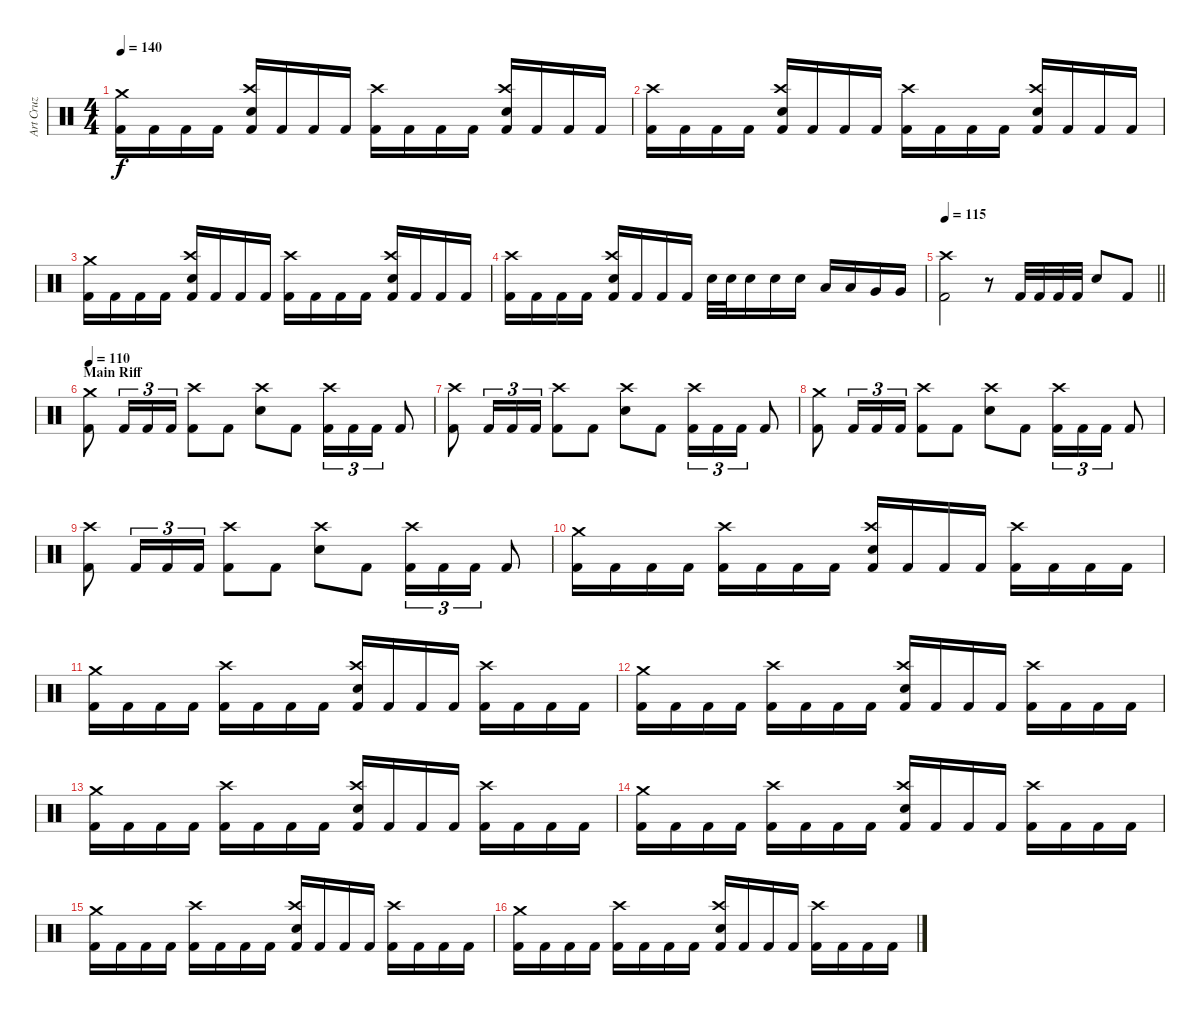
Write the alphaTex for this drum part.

\track ("Art Cruz" "Art Cruz") {instrument percussion}
\staff {score}
\articulation defaults
\ts (4 4)
\tempo 140
\clef neutral
\ks c
("Crash medium (hit)" "Kick (hit) 2").16{dy f} "Kick (hit) 2".16 "Kick (hit) 2".16 "Kick (hit) 2".16 ("Crash high (hit)" "Snare (hit) 2" "Kick (hit) 2").16 "Kick (hit) 2".16 "Kick (hit) 2".16 "Kick (hit) 2".16 ("Crash high (hit)" "Kick (hit) 2").16 "Kick (hit) 2".16 "Kick (hit) 2".16 "Kick (hit) 2".16 ("Crash high (hit)" "Snare (hit) 2" "Kick (hit) 2").16 "Kick (hit) 2".16 "Kick (hit) 2".16 "Kick (hit) 2".16 |
("Crash high (hit)" "Kick (hit) 2").16 "Kick (hit) 2".16 "Kick (hit) 2".16 "Kick (hit) 2".16 ("Crash high (hit)" "Snare (hit) 2" "Kick (hit) 2").16 "Kick (hit) 2".16 "Kick (hit) 2".16 "Kick (hit) 2".16 ("Crash high (hit)" "Kick (hit) 2").16 "Kick (hit) 2".16 "Kick (hit) 2".16 "Kick (hit) 2".16 ("Crash high (hit)" "Snare (hit) 2" "Kick (hit) 2").16 "Kick (hit) 2".16 "Kick (hit) 2".16 "Kick (hit) 2".16 |
("Crash medium (hit)" "Kick (hit) 2").16 "Kick (hit) 2".16 "Kick (hit) 2".16 "Kick (hit) 2".16 ("Crash high (hit)" "Snare (hit) 2" "Kick (hit) 2").16 "Kick (hit) 2".16 "Kick (hit) 2".16 "Kick (hit) 2".16 ("Crash high (hit)" "Kick (hit) 2").16 "Kick (hit) 2".16 "Kick (hit) 2".16 "Kick (hit) 2".16 ("Crash high (hit)" "Snare (hit) 2" "Kick (hit) 2").16 "Kick (hit) 2".16 "Kick (hit) 2".16 "Kick (hit) 2".16 |
("Crash high (hit)" "Kick (hit) 2").16 "Kick (hit) 2".16 "Kick (hit) 2".16 "Kick (hit) 2".16 ("Crash high (hit)" "Snare (hit) 2" "Kick (hit) 2").16 "Kick (hit) 2".16 "Kick (hit) 2".16 "Kick (hit) 2".16 "Snare (hit) 2".32 "Snare (hit) 2".32 "Snare (hit) 2".16 "Snare (hit) 2".16 "Snare (hit) 2".16 "Low Tom (hit)".16 "Low Tom (hit)".16 "Very Low Tom (hit)".16 "Very Low Tom (hit)".16 |
\tempo 115
\barLineRight lightlight
("Crash high (hit)" "Kick (hit) 2").2 r.8 "Kick (hit) 2".32 "Kick (hit) 2".32 "Kick (hit) 2".32 "Kick (hit) 2".32 "Snare (hit) 2".8 "Kick (hit) 2".8 |
\section ("" "Main Riff")
\tempo 110
("Crash medium (hit)" "Kick (hit) 2").8 "Kick (hit) 2".16{tu (3 2)} "Kick (hit) 2".16{tu (3 2)} "Kick (hit) 2".16{tu (3 2)} ("Crash high (hit)" "Kick (hit) 2").8 "Kick (hit) 2".8 ("Crash high (hit)" "Snare (hit) 2").8 "Kick (hit) 2".8 ("Crash high (hit)" "Kick (hit) 2").16{tu (3 2)} "Kick (hit) 2".16{tu (3 2)} "Kick (hit) 2".16{tu (3 2)} "Kick (hit) 2".8 |
("Crash high (hit)" "Kick (hit) 2").8 "Kick (hit) 2".16{tu (3 2)} "Kick (hit) 2".16{tu (3 2)} "Kick (hit) 2".16{tu (3 2)} ("Crash high (hit)" "Kick (hit) 2").8 "Kick (hit) 2".8 ("Crash high (hit)" "Snare (hit) 2").8 "Kick (hit) 2".8 ("Crash high (hit)" "Kick (hit) 2").16{tu (3 2)} "Kick (hit) 2".16{tu (3 2)} "Kick (hit) 2".16{tu (3 2)} "Kick (hit) 2".8 |
("Crash medium (hit)" "Kick (hit) 2").8 "Kick (hit) 2".16{tu (3 2)} "Kick (hit) 2".16{tu (3 2)} "Kick (hit) 2".16{tu (3 2)} ("Crash high (hit)" "Kick (hit) 2").8 "Kick (hit) 2".8 ("Crash high (hit)" "Snare (hit) 2").8 "Kick (hit) 2".8 ("Crash high (hit)" "Kick (hit) 2").16{tu (3 2)} "Kick (hit) 2".16{tu (3 2)} "Kick (hit) 2".16{tu (3 2)} "Kick (hit) 2".8 |
("Crash high (hit)" "Kick (hit) 2").8 "Kick (hit) 2".16{tu (3 2)} "Kick (hit) 2".16{tu (3 2)} "Kick (hit) 2".16{tu (3 2)} ("Crash high (hit)" "Kick (hit) 2").8 "Kick (hit) 2".8 ("Crash high (hit)" "Snare (hit) 2").8 "Kick (hit) 2".8 ("Crash high (hit)" "Kick (hit) 2").16{tu (3 2)} "Kick (hit) 2".16{tu (3 2)} "Kick (hit) 2".16{tu (3 2)} "Kick (hit) 2".8 |
("Crash medium (hit)" "Kick (hit) 2").16 "Kick (hit) 2".16 "Kick (hit) 2".16 "Kick (hit) 2".16 ("Crash high (hit)" "Kick (hit) 2").16 "Kick (hit) 2".16 "Kick (hit) 2".16 "Kick (hit) 2".16 ("Crash high (hit)" "Snare (hit) 2" "Kick (hit) 2").16 "Kick (hit) 2".16 "Kick (hit) 2".16 "Kick (hit) 2".16 ("Crash high (hit)" "Kick (hit) 2").16 "Kick (hit) 2".16 "Kick (hit) 2".16 "Kick (hit) 2".16 |
("Crash medium (hit)" "Kick (hit) 2").16 "Kick (hit) 2".16 "Kick (hit) 2".16 "Kick (hit) 2".16 ("Crash high (hit)" "Kick (hit) 2").16 "Kick (hit) 2".16 "Kick (hit) 2".16 "Kick (hit) 2".16 ("Crash high (hit)" "Snare (hit) 2" "Kick (hit) 2").16 "Kick (hit) 2".16 "Kick (hit) 2".16 "Kick (hit) 2".16 ("Crash high (hit)" "Kick (hit) 2").16 "Kick (hit) 2".16 "Kick (hit) 2".16 "Kick (hit) 2".16 |
("Crash medium (hit)" "Kick (hit) 2").16 "Kick (hit) 2".16 "Kick (hit) 2".16 "Kick (hit) 2".16 ("Crash high (hit)" "Kick (hit) 2").16 "Kick (hit) 2".16 "Kick (hit) 2".16 "Kick (hit) 2".16 ("Crash high (hit)" "Snare (hit) 2" "Kick (hit) 2").16 "Kick (hit) 2".16 "Kick (hit) 2".16 "Kick (hit) 2".16 ("Crash high (hit)" "Kick (hit) 2").16 "Kick (hit) 2".16 "Kick (hit) 2".16 "Kick (hit) 2".16 |
("Crash medium (hit)" "Kick (hit) 2").16 "Kick (hit) 2".16 "Kick (hit) 2".16 "Kick (hit) 2".16 ("Crash high (hit)" "Kick (hit) 2").16 "Kick (hit) 2".16 "Kick (hit) 2".16 "Kick (hit) 2".16 ("Crash high (hit)" "Snare (hit) 2" "Kick (hit) 2").16 "Kick (hit) 2".16 "Kick (hit) 2".16 "Kick (hit) 2".16 ("Crash high (hit)" "Kick (hit) 2").16 "Kick (hit) 2".16 "Kick (hit) 2".16 "Kick (hit) 2".16 |
("Crash medium (hit)" "Kick (hit) 2").16 "Kick (hit) 2".16 "Kick (hit) 2".16 "Kick (hit) 2".16 ("Crash high (hit)" "Kick (hit) 2").16 "Kick (hit) 2".16 "Kick (hit) 2".16 "Kick (hit) 2".16 ("Crash high (hit)" "Snare (hit) 2" "Kick (hit) 2").16 "Kick (hit) 2".16 "Kick (hit) 2".16 "Kick (hit) 2".16 ("Crash high (hit)" "Kick (hit) 2").16 "Kick (hit) 2".16 "Kick (hit) 2".16 "Kick (hit) 2".16 |
("Crash medium (hit)" "Kick (hit) 2").16 "Kick (hit) 2".16 "Kick (hit) 2".16 "Kick (hit) 2".16 ("Crash high (hit)" "Kick (hit) 2").16 "Kick (hit) 2".16 "Kick (hit) 2".16 "Kick (hit) 2".16 ("Crash high (hit)" "Snare (hit) 2" "Kick (hit) 2").16 "Kick (hit) 2".16 "Kick (hit) 2".16 "Kick (hit) 2".16 ("Crash high (hit)" "Kick (hit) 2").16 "Kick (hit) 2".16 "Kick (hit) 2".16 "Kick (hit) 2".16 |
("Crash medium (hit)" "Kick (hit) 2").16 "Kick (hit) 2".16 "Kick (hit) 2".16 "Kick (hit) 2".16 ("Crash high (hit)" "Kick (hit) 2").16 "Kick (hit) 2".16 "Kick (hit) 2".16 "Kick (hit) 2".16 ("Crash high (hit)" "Snare (hit) 2" "Kick (hit) 2").16 "Kick (hit) 2".16 "Kick (hit) 2".16 "Kick (hit) 2".16 ("Crash high (hit)" "Kick (hit) 2").16 "Kick (hit) 2".16 "Kick (hit) 2".16 "Kick (hit) 2".16
